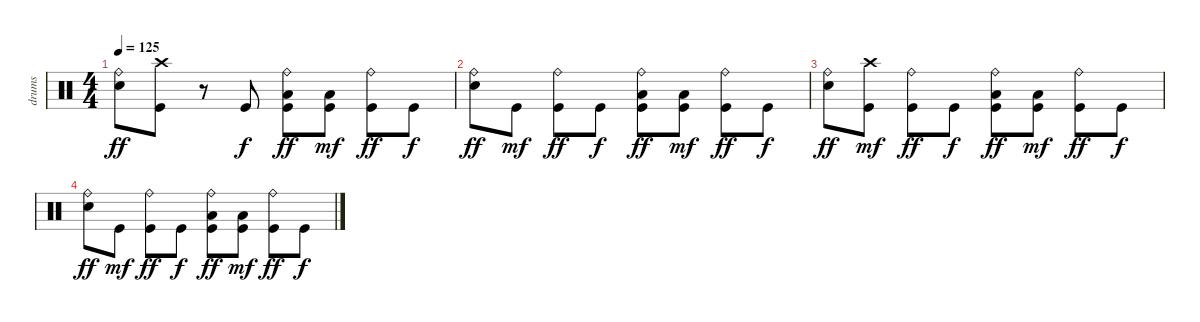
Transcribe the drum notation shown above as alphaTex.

\track ("drums" "drums") {instrument percussion}
\staff {score}
\articulation defaults
\ts (4 4)
\tempo 125
\clef neutral
\ks c
("Electric Snare (hit)" "Ride (bell)").8{dy ff} ("Kick (hit)" "Crash high (hit)").8 r.8 "Kick (hit)".8{dy f} ("Low Tom (hit)" "Kick (hit)" "Ride (bell)").8{dy ff} ("Low Tom (hit)" "Kick (hit)").8{dy mf} ("Kick (hit)" "Ride (bell)").8{dy ff} "Kick (hit)".8{dy f} |
("Electric Snare (hit)" "Ride (bell)").8{dy ff} "Kick (hit)".8{dy mf} ("Kick (hit)" "Ride (bell)").8{dy ff} "Kick (hit)".8{dy f} ("Low Tom (hit)" "Kick (hit)" "Ride (bell)").8{dy ff} ("Low Tom (hit)" "Kick (hit)").8{dy mf} ("Kick (hit)" "Ride (bell)").8{dy ff} "Kick (hit)".8{dy f} |
("Electric Snare (hit)" "Ride (bell)").8{dy ff} ("Kick (hit)" "Crash high (hit)").8{dy mf} ("Kick (hit)" "Ride (bell)").8{dy ff} "Kick (hit)".8{dy f} ("Low Tom (hit)" "Kick (hit)" "Ride (bell)").8{dy ff} ("Low Tom (hit)" "Kick (hit)").8{dy mf} ("Kick (hit)" "Ride (bell)").8{dy ff} "Kick (hit)".8{dy f} |
("Electric Snare (hit)" "Ride (bell)").8{dy ff} "Kick (hit)".8{dy mf} ("Kick (hit)" "Ride (bell)").8{dy ff} "Kick (hit)".8{dy f} ("Low Tom (hit)" "Kick (hit)" "Ride (bell)").8{dy ff} ("Low Tom (hit)" "Kick (hit)").8{dy mf} ("Kick (hit)" "Ride (bell)").8{dy ff} "Kick (hit)".8{dy f}
